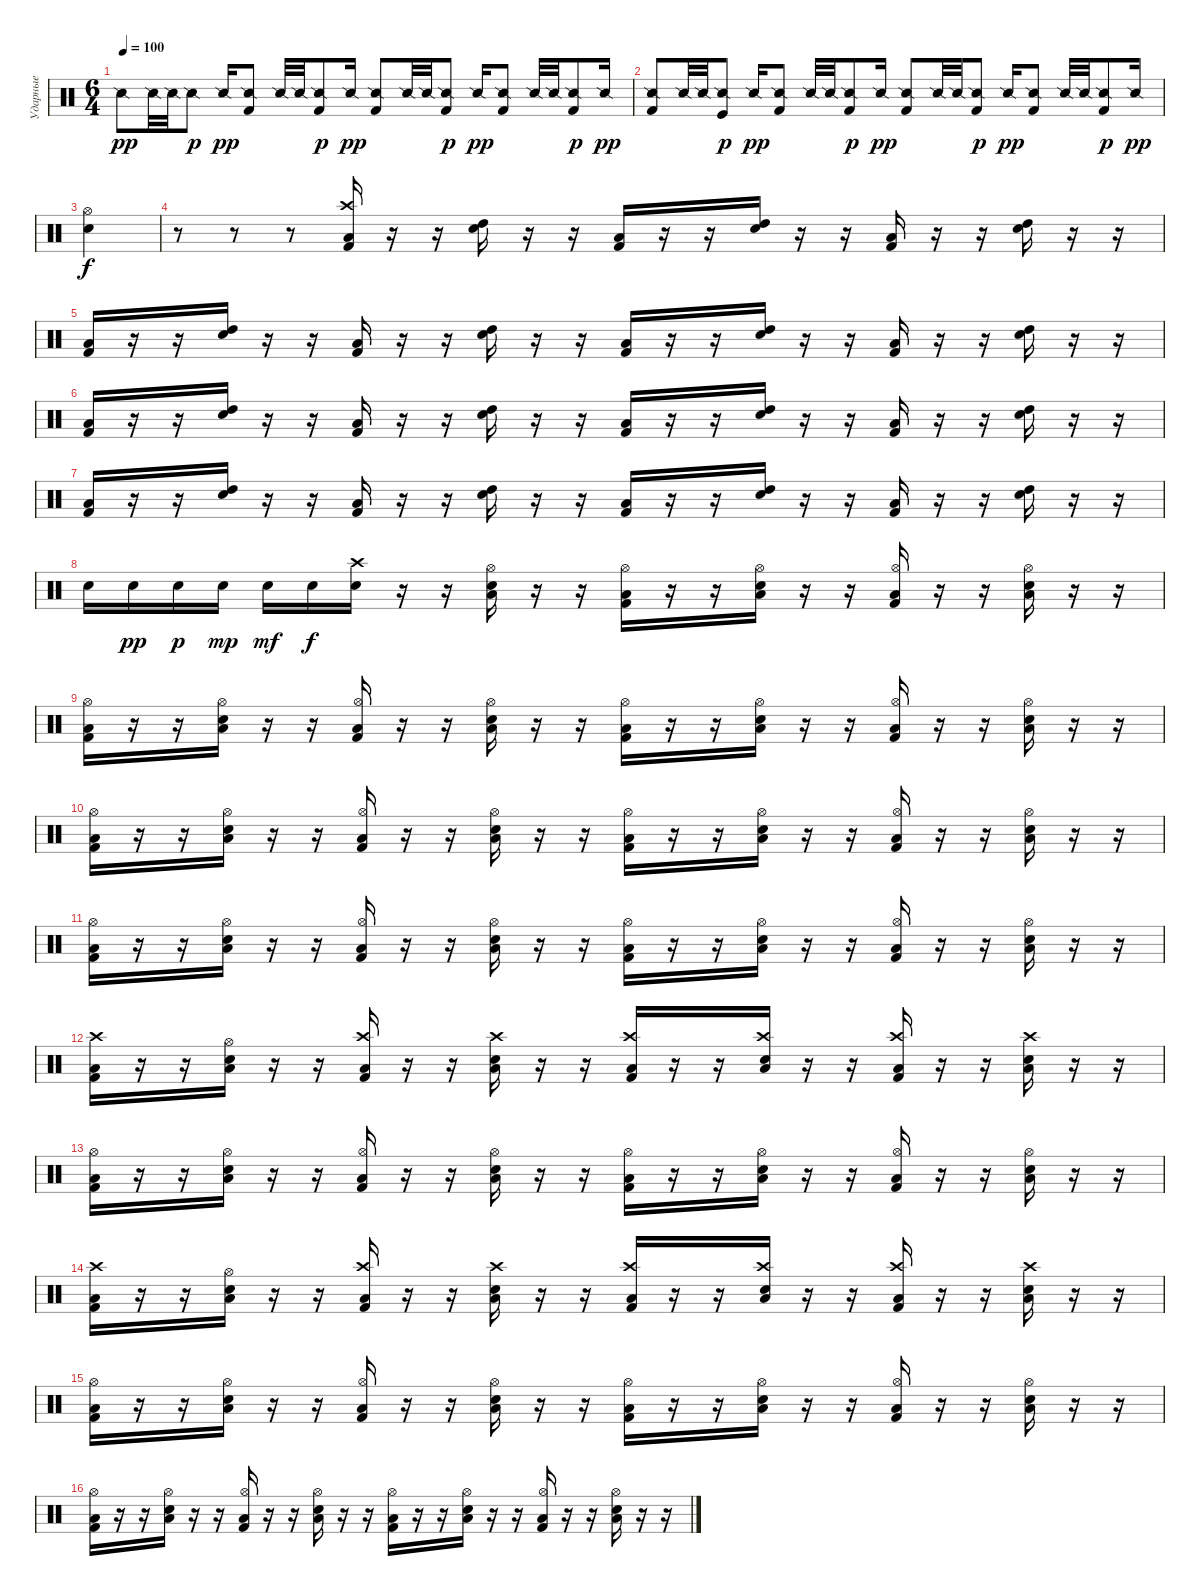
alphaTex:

\track ("Ударные" "Ударные") {instrument percussion}
\staff {score}
\articulation defaults
\ts (6 4)
\tempo 100
\clef neutral
\ks c "Snare (side stick) 2".8{dy pp} "Snare (side stick) 2".32 "Snare (side stick) 2".32 "Snare (side stick) 2".8{dy p} "Snare (side stick) 2".16{dy pp}
("Snare (side stick) 2" "Kick (hit) 2").8 "Snare (side stick) 2".32 "Snare (side stick) 2".32 ("Snare (side stick) 2" "Kick (hit) 2").8{dy p} "Snare (side stick) 2".16{dy pp} ("Snare (side stick) 2" "Kick (hit) 2").8 "Snare (side stick) 2".32 "Snare (side stick) 2".32 ("Snare (side stick) 2" "Kick (hit) 2").8{dy p} "Snare (side stick) 2".16{dy pp} ("Snare (side stick) 2" "Kick (hit) 2").8 "Snare (side stick) 2".32 "Snare (side stick) 2".32 ("Snare (side stick) 2" "Kick (hit) 2").8{dy p} "Snare (side stick) 2".16{dy pp} |
("Snare (side stick) 2" "Kick (hit) 2").8 "Snare (side stick) 2".32 "Snare (side stick) 2".32 ("Snare (side stick) 2" "Kick (hit)").8{dy p} "Snare (side stick) 2".16{dy pp} ("Snare (side stick) 2" "Kick (hit) 2").8 "Snare (side stick) 2".32 "Snare (side stick) 2".32 ("Snare (side stick) 2" "Kick (hit) 2").8{dy p} "Snare (side stick) 2".16{dy pp} ("Snare (side stick) 2" "Kick (hit) 2").8 "Snare (side stick) 2".32 "Snare (side stick) 2".32 ("Snare (side stick) 2" "Kick (hit) 2").8{dy p} "Snare (side stick) 2".16{dy pp} ("Snare (side stick) 2" "Kick (hit) 2").8 "Snare (side stick) 2".32 "Snare (side stick) 2".32 ("Snare (side stick) 2" "Kick (hit) 2").8{dy p} "Snare (side stick) 2".16{dy pp} |
("Hi-Hat (open)" "Snare (hit) 2").4{dy f} |
r.8 r.8 r.8 ("Crash high (hit)" "Low Tom (hit)" "Kick (hit) 2").16 r.16 r.16 ("High Tom (hit)" "Snare (hit) 2").16 r.16 r.16 ("Low Tom (hit)" "Kick (hit) 2").16 r.16 r.16 ("High Tom (hit)" "Snare (hit) 2").16 r.16 r.16 ("Low Tom (hit)" "Kick (hit) 2").16 r.16 r.16 ("High Tom (hit)" "Snare (hit) 2").16 r.16 r.16 |
("Low Tom (hit)" "Kick (hit) 2").16 r.16 r.16 ("High Tom (hit)" "Snare (hit) 2").16 r.16 r.16 ("Low Tom (hit)" "Kick (hit) 2").16 r.16 r.16 ("High Tom (hit)" "Snare (hit) 2").16 r.16 r.16 ("Low Tom (hit)" "Kick (hit) 2").16 r.16 r.16 ("High Tom (hit)" "Snare (hit) 2").16 r.16 r.16 ("Low Tom (hit)" "Kick (hit) 2").16 r.16 r.16 ("High Tom (hit)" "Snare (hit) 2").16 r.16 r.16 |
("Low Tom (hit)" "Kick (hit) 2").16 r.16 r.16 ("High Tom (hit)" "Snare (hit) 2").16 r.16 r.16 ("Low Tom (hit)" "Kick (hit) 2").16 r.16 r.16 ("High Tom (hit)" "Snare (hit) 2").16 r.16 r.16 ("Low Tom (hit)" "Kick (hit) 2").16 r.16 r.16 ("High Tom (hit)" "Snare (hit) 2").16 r.16 r.16 ("Low Tom (hit)" "Kick (hit) 2").16 r.16 r.16 ("High Tom (hit)" "Snare (hit) 2").16 r.16 r.16 |
("Low Tom (hit)" "Kick (hit) 2").16 r.16 r.16 ("High Tom (hit)" "Snare (hit) 2").16 r.16 r.16 ("Low Tom (hit)" "Kick (hit) 2").16 r.16 r.16 ("High Tom (hit)" "Snare (hit) 2").16 r.16 r.16 ("Low Tom (hit)" "Kick (hit) 2").16 r.16 r.16 ("High Tom (hit)" "Snare (hit) 2").16 r.16 r.16 ("Low Tom (hit)" "Kick (hit) 2").16 r.16 r.16 ("High Tom (hit)" "Snare (hit) 2").16 r.16 r.16 |
"Snare (hit) 2".16 "Snare (hit) 2".16{dy pp} "Snare (hit) 2".16{dy p} "Snare (hit) 2".16{dy mp} "Snare (hit) 2".16{dy mf} "Snare (hit) 2".16{dy f} ("Crash high (hit)" "Snare (hit) 2").16 r.16 r.16 ("Hi-Hat (open)" "Low Tom (hit)" "Snare (hit) 2").16 r.16 r.16 ("Hi-Hat (open)" "Low Tom (hit)" "Kick (hit) 2").16 r.16 r.16 ("Hi-Hat (open)" "Low Tom (hit)" "Snare (hit) 2").16 r.16 r.16 ("Hi-Hat (open)" "Low Tom (hit)" "Kick (hit) 2").16 r.16 r.16 ("Hi-Hat (open)" "Low Tom (hit)" "Snare (hit) 2").16 r.16 r.16 |
("Hi-Hat (open)" "Low Tom (hit)" "Kick (hit) 2").16 r.16 r.16 ("Hi-Hat (open)" "Low Tom (hit)" "Snare (hit) 2").16 r.16 r.16 ("Hi-Hat (open)" "Low Tom (hit)" "Kick (hit) 2").16 r.16 r.16 ("Hi-Hat (open)" "Low Tom (hit)" "Snare (hit) 2").16 r.16 r.16 ("Hi-Hat (open)" "Low Tom (hit)" "Kick (hit) 2").16 r.16 r.16 ("Hi-Hat (open)" "Low Tom (hit)" "Snare (hit) 2").16 r.16 r.16 ("Hi-Hat (open)" "Low Tom (hit)" "Kick (hit) 2").16 r.16 r.16 ("Hi-Hat (open)" "Low Tom (hit)" "Snare (hit) 2").16 r.16 r.16 |
("Hi-Hat (open)" "Low Tom (hit)" "Kick (hit) 2").16 r.16 r.16 ("Hi-Hat (open)" "Low Tom (hit)" "Snare (hit) 2").16 r.16 r.16 ("Hi-Hat (open)" "Low Tom (hit)" "Kick (hit) 2").16 r.16 r.16 ("Hi-Hat (open)" "Low Tom (hit)" "Snare (hit) 2").16 r.16 r.16 ("Hi-Hat (open)" "Low Tom (hit)" "Kick (hit) 2").16 r.16 r.16 ("Hi-Hat (open)" "Low Tom (hit)" "Snare (hit) 2").16 r.16 r.16 ("Hi-Hat (open)" "Low Tom (hit)" "Kick (hit) 2").16 r.16 r.16 ("Hi-Hat (open)" "Low Tom (hit)" "Snare (hit) 2").16 r.16 r.16 |
("Hi-Hat (open)" "Low Tom (hit)" "Kick (hit) 2").16 r.16 r.16 ("Hi-Hat (open)" "Low Tom (hit)" "Snare (hit) 2").16 r.16 r.16 ("Hi-Hat (open)" "Low Tom (hit)" "Kick (hit) 2").16 r.16 r.16 ("Hi-Hat (open)" "Low Tom (hit)" "Snare (hit) 2").16 r.16 r.16 ("Hi-Hat (open)" "Low Tom (hit)" "Kick (hit) 2").16 r.16 r.16 ("Hi-Hat (open)" "Low Tom (hit)" "Snare (hit) 2").16 r.16 r.16 ("Hi-Hat (open)" "Low Tom (hit)" "Kick (hit) 2").16 r.16 r.16 ("Hi-Hat (open)" "Low Tom (hit)" "Snare (hit) 2").16 r.16 r.16 |
("Crash high (hit)" "Low Tom (hit)" "Kick (hit) 2").16 r.16 r.16 ("Hi-Hat (open)" "Low Tom (hit)" "Snare (hit) 2").16 r.16 r.16 ("Crash high (hit)" "Low Tom (hit)" "Kick (hit) 2").16 r.16 r.16 ("Crash high (hit)" "Low Tom (hit)" "Snare (hit) 2").16 r.16 r.16 ("Crash high (hit)" "Low Tom (hit)" "Kick (hit) 2").16 r.16 r.16 ("Crash high (hit)" "Low Tom (hit)" "Snare (hit) 2").16 r.16 r.16 ("Crash high (hit)" "Low Tom (hit)" "Kick (hit) 2").16 r.16 r.16 ("Crash high (hit)" "Low Tom (hit)" "Snare (hit) 2").16 r.16 r.16 |
("Hi-Hat (open)" "Low Tom (hit)" "Kick (hit) 2").16 r.16 r.16 ("Hi-Hat (open)" "Low Tom (hit)" "Snare (hit) 2").16 r.16 r.16 ("Hi-Hat (open)" "Low Tom (hit)" "Kick (hit) 2").16 r.16 r.16 ("Hi-Hat (open)" "Low Tom (hit)" "Snare (hit) 2").16 r.16 r.16 ("Hi-Hat (open)" "Low Tom (hit)" "Kick (hit) 2").16 r.16 r.16 ("Hi-Hat (open)" "Low Tom (hit)" "Snare (hit) 2").16 r.16 r.16 ("Hi-Hat (open)" "Low Tom (hit)" "Kick (hit) 2").16 r.16 r.16 ("Hi-Hat (open)" "Low Tom (hit)" "Snare (hit) 2").16 r.16 r.16 |
("Crash high (hit)" "Low Tom (hit)" "Kick (hit) 2").16 r.16 r.16 ("Hi-Hat (open)" "Low Tom (hit)" "Snare (hit) 2").16 r.16 r.16 ("Crash high (hit)" "Low Tom (hit)" "Kick (hit) 2").16 r.16 r.16 ("Crash high (hit)" "Low Tom (hit)" "Snare (hit) 2").16 r.16 r.16 ("Crash high (hit)" "Low Tom (hit)" "Kick (hit) 2").16 r.16 r.16 ("Crash high (hit)" "Low Tom (hit)" "Snare (hit) 2").16 r.16 r.16 ("Crash high (hit)" "Low Tom (hit)" "Kick (hit) 2").16 r.16 r.16 ("Crash high (hit)" "Low Tom (hit)" "Snare (hit) 2").16 r.16 r.16 |
("Hi-Hat (open)" "Low Tom (hit)" "Kick (hit) 2").16 r.16 r.16 ("Hi-Hat (open)" "Low Tom (hit)" "Snare (hit) 2").16 r.16 r.16 ("Hi-Hat (open)" "Low Tom (hit)" "Kick (hit) 2").16 r.16 r.16 ("Hi-Hat (open)" "Low Tom (hit)" "Snare (hit) 2").16 r.16 r.16 ("Hi-Hat (open)" "Low Tom (hit)" "Kick (hit) 2").16 r.16 r.16 ("Hi-Hat (open)" "Low Tom (hit)" "Snare (hit) 2").16 r.16 r.16 ("Hi-Hat (open)" "Low Tom (hit)" "Kick (hit) 2").16 r.16 r.16 ("Hi-Hat (open)" "Low Tom (hit)" "Snare (hit) 2").16 r.16 r.16 |
("Hi-Hat (open)" "Low Tom (hit)" "Kick (hit) 2").16 r.16 r.16 ("Hi-Hat (open)" "Low Tom (hit)" "Snare (hit) 2").16 r.16 r.16 ("Hi-Hat (open)" "Low Tom (hit)" "Kick (hit) 2").16 r.16 r.16 ("Hi-Hat (open)" "Low Tom (hit)" "Snare (hit) 2").16 r.16 r.16 ("Hi-Hat (open)" "Low Tom (hit)" "Kick (hit) 2").16 r.16 r.16 ("Hi-Hat (open)" "Low Tom (hit)" "Snare (hit) 2").16 r.16 r.16 ("Hi-Hat (open)" "Low Tom (hit)" "Kick (hit) 2").16 r.16 r.16 ("Hi-Hat (open)" "Low Tom (hit)" "Snare (hit) 2").16 r.16 r.16
